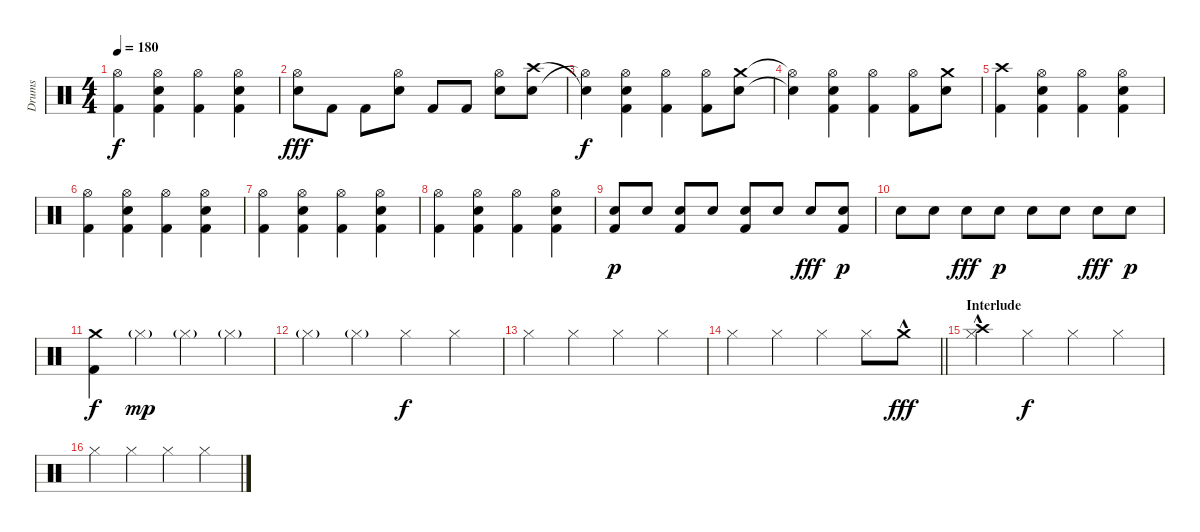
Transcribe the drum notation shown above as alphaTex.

\track ("Drums" "Drums") {instrument percussion}
\staff {score}
\articulation defaults
\ts (4 4)
\tempo 180
\clef neutral
\ks c
("Hi-Hat (open)" "Kick (hit) 2").4{dy f} ("Hi-Hat (open)" "Electric Snare (hit)" "Kick (hit) 2").4 ("Hi-Hat (open)" "Kick (hit) 2").4 ("Hi-Hat (open)" "Electric Snare (hit)" "Kick (hit) 2").4 |
("Hi-Hat (open)" "Electric Snare (hit)").8{dy fff} "Kick (hit) 2".8 "Kick (hit) 2".8 ("Hi-Hat (open)" "Electric Snare (hit)").8 "Kick (hit) 2".8 "Kick (hit) 2".8 ("Hi-Hat (open)" "Electric Snare (hit)").8 ("Crash high (hit)" "Electric Snare (hit)").8 |
("Snare (hit)"{t} "Hi-Hat (open)"{t}).4{dy f} ("Hi-Hat (open)" "Electric Snare (hit)" "Kick (hit) 2").4 ("Hi-Hat (open)" "Kick (hit) 2").4 ("Hi-Hat (open)" "Kick (hit) 2").8 ("Crash medium (hit)" "Electric Snare (hit)").8 |
("Hi-Hat (open)"{t} "Snare (hit)"{t}).4 ("Hi-Hat (open)" "Electric Snare (hit)" "Kick (hit) 2").4 ("Hi-Hat (open)" "Kick (hit) 2").4 ("Hi-Hat (open)" "Kick (hit) 2").8 ("Crash medium (hit)" "Electric Snare (hit)").8 |
("Crash high (hit)" "Kick (hit) 2").4 ("Hi-Hat (open)" "Electric Snare (hit)" "Kick (hit) 2").4 ("Hi-Hat (open)" "Kick (hit) 2").4 ("Hi-Hat (open)" "Electric Snare (hit)" "Kick (hit) 2").4 |
("Hi-Hat (open)" "Kick (hit) 2").4 ("Hi-Hat (open)" "Electric Snare (hit)" "Kick (hit) 2").4 ("Hi-Hat (open)" "Kick (hit) 2").4 ("Hi-Hat (open)" "Electric Snare (hit)" "Kick (hit) 2").4 |
("Hi-Hat (open)" "Kick (hit) 2").4 ("Hi-Hat (open)" "Electric Snare (hit)" "Kick (hit) 2").4 ("Hi-Hat (open)" "Kick (hit) 2").4 ("Hi-Hat (open)" "Electric Snare (hit)" "Kick (hit) 2").4 |
("Hi-Hat (open)" "Kick (hit) 2").4 ("Hi-Hat (open)" "Electric Snare (hit)" "Kick (hit) 2").4 ("Hi-Hat (open)" "Kick (hit) 2").4 ("Hi-Hat (open)" "Electric Snare (hit)" "Kick (hit) 2").4 |
("Electric Snare (hit)" "Kick (hit) 2").8{dy p} "Electric Snare (hit)".8 ("Electric Snare (hit)" "Kick (hit) 2").8 "Electric Snare (hit)".8 ("Electric Snare (hit)" "Kick (hit) 2").8 "Electric Snare (hit)".8 "Electric Snare (hit)".8{dy fff} ("Electric Snare (hit)" "Kick (hit) 2").8{dy p} |
"Electric Snare (hit)".8 "Electric Snare (hit)".8 "Electric Snare (hit)".8{dy fff} "Electric Snare (hit)".8{dy p} "Electric Snare (hit)".8 "Electric Snare (hit)".8 "Electric Snare (hit)".8{dy fff} "Electric Snare (hit)".8{dy p} |
("Crash medium (hit)" "Kick (hit) 2").4{dy f} "Hi-Hat (closed)"{g}.4{dy mp} "Hi-Hat (closed)"{g}.4 "Hi-Hat (closed)"{g}.4 |
"Hi-Hat (closed)"{g}.4 "Hi-Hat (closed)"{g}.4 "Hi-Hat (closed)".4{dy f} "Hi-Hat (closed)".4 |
"Hi-Hat (closed)".4 "Hi-Hat (closed)".4 "Hi-Hat (closed)".4 "Hi-Hat (closed)".4 |
\barLineRight lightlight "Hi-Hat (closed)".4 "Hi-Hat (closed)".4 "Hi-Hat (closed)".4 "Hi-Hat (closed)".8 "Crash medium (hit)"{hac}.8{dy fff}
|
\section ("" "Interlude")
("Crash high (hit)"{hac} "Hi-Hat (closed)").4 "Hi-Hat (closed)".4{dy f} "Hi-Hat (closed)".4 "Hi-Hat (closed)".4 |
"Hi-Hat (closed)".4 "Hi-Hat (closed)".4 "Hi-Hat (closed)".4 "Hi-Hat (closed)".4
